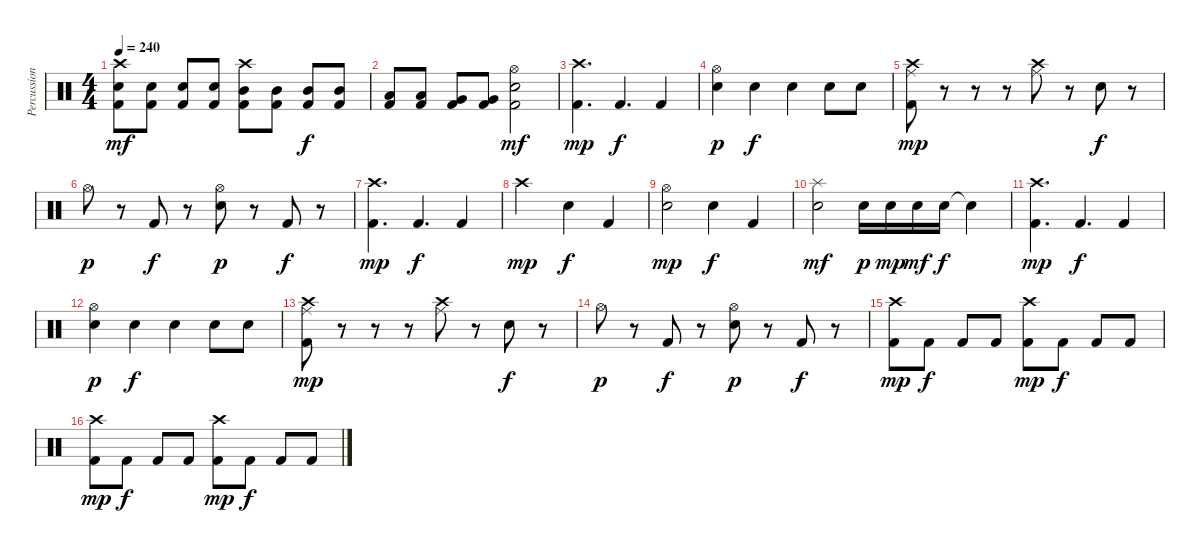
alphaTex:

\track ("Percussion" "Percussion") {instrument percussion}
\staff {score}
\articulation defaults
\ts (4 4)
\tempo 240
\clef neutral
\ks c
("Crash high (hit)" "Electric Snare (hit)" "Kick (hit) 2").8{dy mf} ("Electric Snare (hit)" "Kick (hit) 2").8 ("Electric Snare (hit)" "Kick (hit) 2").8 ("Electric Snare (hit)" "Kick (hit) 2").8 ("Crash high (hit)" "Mid Tom (hit)" "Kick (hit) 2").8 ("Mid Tom (hit)" "Kick (hit) 2").8 ("Mid Tom (hit)" "Kick (hit) 2").8{dy f} ("Mid Tom (hit)" "Kick (hit) 2").8 |
("Low Tom (hit)" "Kick (hit) 2").8 ("Low Tom (hit)" "Kick (hit) 2").8 ("Very Low Tom (hit)" "Kick (hit) 2").8 ("Very Low Tom (hit)" "Kick (hit) 2").8 ("Hi-Hat (open)" "Electric Snare (hit)" "Kick (hit) 2").2{dy mf} |
("Crash high (hit)" "Kick (hit) 2").4{d dy mp} "Kick (hit) 2".4{d dy f} "Kick (hit) 2".4 |
("Hi-Hat (open)" "Electric Snare (hit)").4{dy p} "Electric Snare (hit)".4{dy f} "Electric Snare (hit)".4 "Electric Snare (hit)".8 "Electric Snare (hit)".8 |
("Crash high (hit)" "Ride (middle)" "Kick (hit) 2").8{dy mp} r.8 r.8 r.8 ("Crash high (hit)" "Ride (middle)").8 r.8 "Electric Snare (hit)".8{dy f} r.8 |
"Hi-Hat (open)".8{dy p} r.8 "Kick (hit) 2".8{dy f} r.8 ("Hi-Hat (open)" "Electric Snare (hit)").8{dy p} r.8 "Kick (hit) 2".8{dy f} r.8 |
("Crash high (hit)" "Kick (hit) 2").4{d dy mp} "Kick (hit) 2".4{d dy f} "Kick (hit) 2".4 |
"Crash high (hit)".2{dy mp} "Electric Snare (hit)".4{dy f} "Kick (hit) 2".4 |
("Hi-Hat (open)" "Electric Snare (hit)").2{dy mp} "Electric Snare (hit)".4{dy f} "Kick (hit) 2".4 |
("Splash (hit)" "Electric Snare (hit)").2{dy mf} "Electric Snare (hit)".16{dy p} "Electric Snare (hit)".16{dy mp} "Electric Snare (hit)".16{dy mf} "Electric Snare (hit)".16{dy f} "Electric Snare (hit)"{t}.4 |
("Crash high (hit)" "Kick (hit) 2").4{d dy mp} "Kick (hit) 2".4{d dy f} "Kick (hit) 2".4 |
("Hi-Hat (open)" "Electric Snare (hit)").4{dy p} "Electric Snare (hit)".4{dy f} "Electric Snare (hit)".4 "Electric Snare (hit)".8 "Electric Snare (hit)".8 |
("Crash high (hit)" "Ride (middle)" "Kick (hit) 2").8{dy mp} r.8 r.8 r.8 ("Crash high (hit)" "Ride (middle)").8 r.8 "Electric Snare (hit)".8{dy f} r.8 |
"Hi-Hat (open)".8{dy p} r.8 "Kick (hit) 2".8{dy f} r.8 ("Hi-Hat (open)" "Electric Snare (hit)").8{dy p} r.8 "Kick (hit) 2".8{dy f} r.8 |
("Crash high (hit)" "Kick (hit) 2").8{dy mp} "Kick (hit) 2".8{dy f} "Kick (hit) 2".8 "Kick (hit) 2".8 ("Crash high (hit)" "Kick (hit) 2").8{dy mp} "Kick (hit) 2".8{dy f} "Kick (hit) 2".8 "Kick (hit) 2".8 |
("Crash high (hit)" "Kick (hit) 2").8{dy mp} "Kick (hit) 2".8{dy f} "Kick (hit) 2".8 "Kick (hit) 2".8 ("Crash high (hit)" "Kick (hit) 2").8{dy mp} "Kick (hit) 2".8{dy f} "Kick (hit) 2".8 "Kick (hit) 2".8
